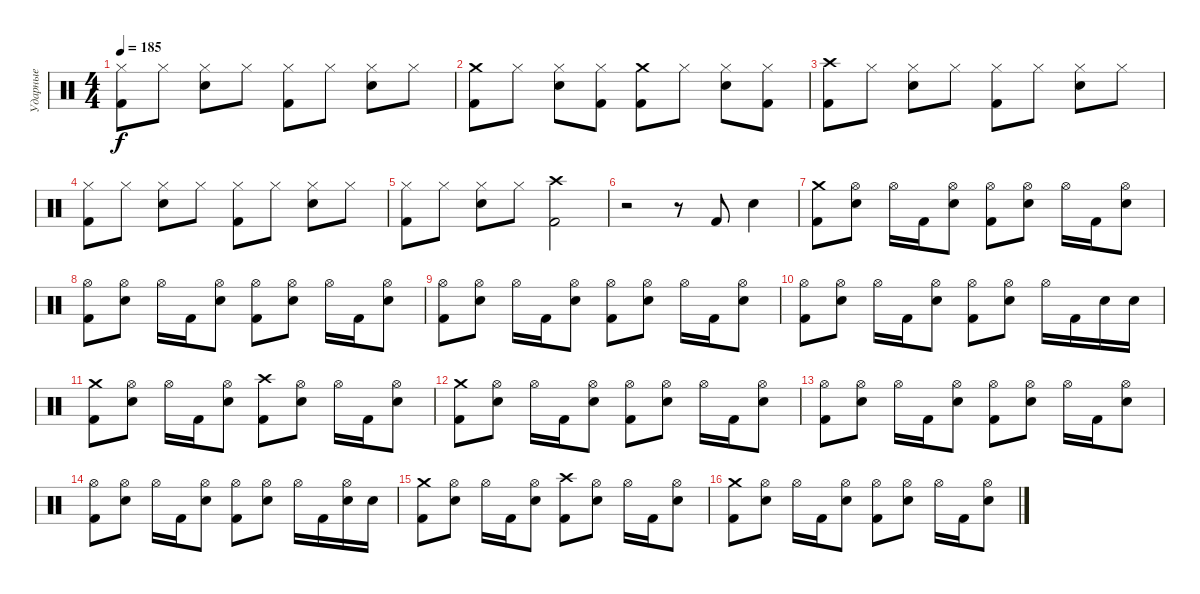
\track ("Ударные" "Ударные") {instrument percussion}
\staff {score}
\articulation defaults
\ts (4 4)
\tempo 185
\clef neutral
\ks c
("Hi-Hat (closed)" "Kick (hit) 2").8{dy f} "Hi-Hat (closed)".8 ("Hi-Hat (closed)" "Electric Snare (hit)").8 "Hi-Hat (closed)".8 ("Hi-Hat (closed)" "Kick (hit) 2").8 "Hi-Hat (closed)".8 ("Hi-Hat (closed)" "Electric Snare (hit)").8 "Hi-Hat (closed)".8 |
("Crash medium (hit)" "Kick (hit) 2").8 "Hi-Hat (closed)".8 ("Hi-Hat (closed)" "Electric Snare (hit)").8 ("Hi-Hat (closed)" "Kick (hit) 2").8 ("Crash medium (hit)" "Kick (hit) 2").8 "Hi-Hat (closed)".8 ("Hi-Hat (closed)" "Electric Snare (hit)").8 ("Hi-Hat (closed)" "Kick (hit) 2").8 |
("Crash high (hit)" "Kick (hit) 2").8 "Hi-Hat (closed)".8 ("Hi-Hat (closed)" "Electric Snare (hit)").8 "Hi-Hat (closed)".8 ("Hi-Hat (closed)" "Kick (hit) 2").8 "Hi-Hat (closed)".8 ("Hi-Hat (closed)" "Electric Snare (hit)").8 "Hi-Hat (closed)".8 |
("Hi-Hat (closed)" "Kick (hit) 2").8 "Hi-Hat (closed)".8 ("Hi-Hat (closed)" "Electric Snare (hit)").8 "Hi-Hat (closed)".8 ("Hi-Hat (closed)" "Kick (hit) 2").8 "Hi-Hat (closed)".8 ("Hi-Hat (closed)" "Electric Snare (hit)").8 "Hi-Hat (closed)".8 |
("Hi-Hat (closed)" "Kick (hit) 2").8 "Hi-Hat (closed)".8 ("Hi-Hat (closed)" "Electric Snare (hit)").8 "Hi-Hat (closed)".8 ("Crash high (hit)" "Kick (hit) 2").2 |
r.2 r.8 "Kick (hit) 2".8 "Electric Snare (hit)".4 |
("Crash medium (hit)" "Kick (hit) 2").8 ("Hi-Hat (open)" "Electric Snare (hit)").8 "Hi-Hat (open)".16 "Kick (hit) 2".16 ("Hi-Hat (open)" "Electric Snare (hit)").8 ("Hi-Hat (open)" "Kick (hit) 2").8 ("Hi-Hat (open)" "Electric Snare (hit)").8 "Hi-Hat (open)".16 "Kick (hit) 2".16 ("Hi-Hat (open)" "Electric Snare (hit)").8 |
("Hi-Hat (open)" "Kick (hit) 2").8 ("Hi-Hat (open)" "Electric Snare (hit)").8 "Hi-Hat (open)".16 "Kick (hit) 2".16 ("Hi-Hat (open)" "Electric Snare (hit)").8 ("Hi-Hat (open)" "Kick (hit) 2").8 ("Hi-Hat (open)" "Electric Snare (hit)").8 "Hi-Hat (open)".16 "Kick (hit) 2".16 ("Hi-Hat (open)" "Electric Snare (hit)").8 |
("Hi-Hat (open)" "Kick (hit) 2").8 ("Hi-Hat (open)" "Electric Snare (hit)").8 "Hi-Hat (open)".16 "Kick (hit) 2".16 ("Hi-Hat (open)" "Electric Snare (hit)").8 ("Hi-Hat (open)" "Kick (hit) 2").8 ("Hi-Hat (open)" "Electric Snare (hit)").8 "Hi-Hat (open)".16 "Kick (hit) 2".16 ("Hi-Hat (open)" "Electric Snare (hit)").8 |
("Hi-Hat (open)" "Kick (hit) 2").8 ("Hi-Hat (open)" "Electric Snare (hit)").8 "Hi-Hat (open)".16 "Kick (hit) 2".16 ("Hi-Hat (open)" "Electric Snare (hit)").8 ("Hi-Hat (open)" "Kick (hit) 2").8 ("Hi-Hat (open)" "Electric Snare (hit)").8 "Hi-Hat (open)".16 "Kick (hit) 2".16 "Electric Snare (hit)".16 "Electric Snare (hit)".16 |
("Crash medium (hit)" "Kick (hit) 2").8 ("Hi-Hat (open)" "Electric Snare (hit)").8 "Hi-Hat (open)".16 "Kick (hit) 2".16 ("Hi-Hat (open)" "Electric Snare (hit)").8 ("Crash high (hit)" "Kick (hit) 2").8 ("Hi-Hat (open)" "Electric Snare (hit)").8 "Hi-Hat (open)".16 "Kick (hit) 2".16 ("Hi-Hat (open)" "Electric Snare (hit)").8 |
("Crash medium (hit)" "Kick (hit) 2").8 ("Hi-Hat (open)" "Electric Snare (hit)").8 "Hi-Hat (open)".16 "Kick (hit) 2".16 ("Hi-Hat (open)" "Electric Snare (hit)").8 ("Hi-Hat (open)" "Kick (hit) 2").8 ("Hi-Hat (open)" "Electric Snare (hit)").8 "Hi-Hat (open)".16 "Kick (hit) 2".16 ("Hi-Hat (open)" "Electric Snare (hit)").8 |
("Hi-Hat (open)" "Kick (hit) 2").8 ("Hi-Hat (open)" "Electric Snare (hit)").8 "Hi-Hat (open)".16 "Kick (hit) 2".16 ("Hi-Hat (open)" "Electric Snare (hit)").8 ("Hi-Hat (open)" "Kick (hit) 2").8 ("Hi-Hat (open)" "Electric Snare (hit)").8 "Hi-Hat (open)".16 "Kick (hit) 2".16 ("Hi-Hat (open)" "Electric Snare (hit)").8 |
("Hi-Hat (open)" "Kick (hit) 2").8 ("Hi-Hat (open)" "Electric Snare (hit)").8 "Hi-Hat (open)".16 "Kick (hit) 2".16 ("Hi-Hat (open)" "Electric Snare (hit)").8 ("Hi-Hat (open)" "Kick (hit) 2").8 ("Hi-Hat (open)" "Electric Snare (hit)").8 "Hi-Hat (open)".16 "Kick (hit) 2".16 ("Hi-Hat (open)" "Electric Snare (hit)").16 "Electric Snare (hit)".16 |
("Crash medium (hit)" "Kick (hit) 2").8 ("Hi-Hat (open)" "Electric Snare (hit)").8 "Hi-Hat (open)".16 "Kick (hit) 2".16 ("Hi-Hat (open)" "Electric Snare (hit)").8 ("Crash high (hit)" "Kick (hit) 2").8 ("Hi-Hat (open)" "Electric Snare (hit)").8 "Hi-Hat (open)".16 "Kick (hit) 2".16 ("Hi-Hat (open)" "Electric Snare (hit)").8 |
("Crash medium (hit)" "Kick (hit) 2").8 ("Hi-Hat (open)" "Electric Snare (hit)").8 "Hi-Hat (open)".16 "Kick (hit) 2".16 ("Hi-Hat (open)" "Electric Snare (hit)").8 ("Hi-Hat (open)" "Kick (hit) 2").8 ("Hi-Hat (open)" "Electric Snare (hit)").8 "Hi-Hat (open)".16 "Kick (hit) 2".16 ("Hi-Hat (open)" "Electric Snare (hit)").8
